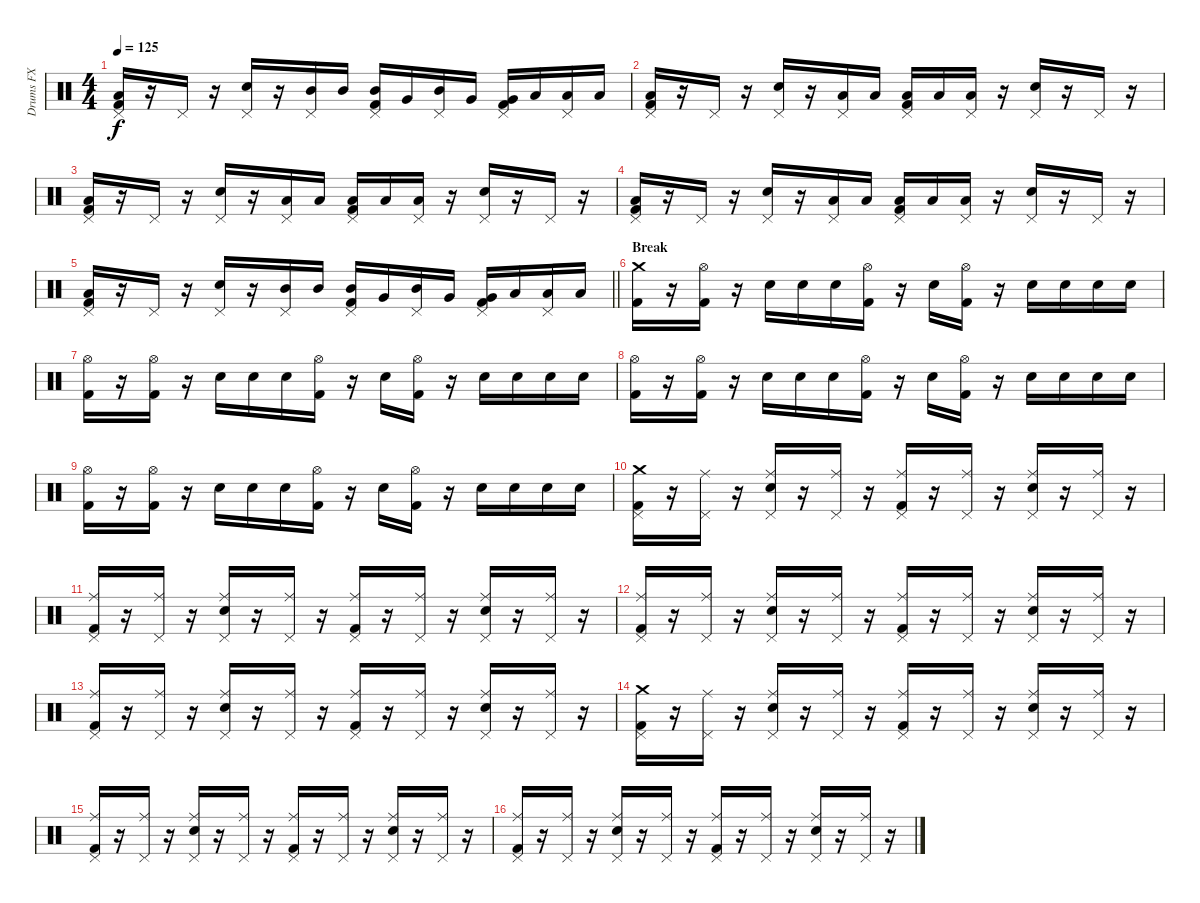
\track ("Drums FX" "Drums FX") {instrument percussion}
\staff {score}
\articulation defaults
\ts (4 4)
\tempo 125
\clef neutral
\ks c
("Low Floor Tom (hit)" "Pedal Hi-Hat (hit)" "Kick (hit) 2").16{dy f} r.16 "Pedal Hi-Hat (hit)".16 r.16 ("Snare (hit) 2" "Pedal Hi-Hat (hit)").16 r.16 ("Mid Tom (hit)" "Pedal Hi-Hat (hit)").16 "Mid Tom (hit)".16 ("Mid Tom (hit)" "Pedal Hi-Hat (hit)" "Kick (hit) 2").16 "Very Low Tom (hit)".16 ("Mid Tom (hit)" "Pedal Hi-Hat (hit)").16 "Very Low Tom (hit)".16 ("Very Low Tom (hit)" "Pedal Hi-Hat (hit)" "Kick (hit) 2").16 "Low Floor Tom (hit)".16 ("Low Floor Tom (hit)" "Pedal Hi-Hat (hit)").16 "Low Floor Tom (hit)".16 |
("Low Floor Tom (hit)" "Pedal Hi-Hat (hit)" "Kick (hit) 2").16 r.16 "Pedal Hi-Hat (hit)".16 r.16 ("Snare (hit) 2" "Pedal Hi-Hat (hit)").16 r.16 ("Low Floor Tom (hit)" "Pedal Hi-Hat (hit)").16 "Low Floor Tom (hit)".16 ("Low Floor Tom (hit)" "Pedal Hi-Hat (hit)" "Kick (hit) 2").16 "Low Floor Tom (hit)".16 ("Low Floor Tom (hit)" "Pedal Hi-Hat (hit)").16 r.16 ("Snare (hit) 2" "Pedal Hi-Hat (hit)").16 r.16 "Pedal Hi-Hat (hit)".16 r.16 |
("Low Floor Tom (hit)" "Pedal Hi-Hat (hit)" "Kick (hit) 2").16 r.16 "Pedal Hi-Hat (hit)".16 r.16 ("Snare (hit) 2" "Pedal Hi-Hat (hit)").16 r.16 ("Low Floor Tom (hit)" "Pedal Hi-Hat (hit)").16 "Low Floor Tom (hit)".16 ("Low Floor Tom (hit)" "Pedal Hi-Hat (hit)" "Kick (hit) 2").16 "Low Floor Tom (hit)".16 ("Low Floor Tom (hit)" "Pedal Hi-Hat (hit)").16 r.16 ("Snare (hit) 2" "Pedal Hi-Hat (hit)").16 r.16 "Pedal Hi-Hat (hit)".16 r.16 |
("Low Floor Tom (hit)" "Pedal Hi-Hat (hit)" "Kick (hit) 2").16 r.16 "Pedal Hi-Hat (hit)".16 r.16 ("Snare (hit) 2" "Pedal Hi-Hat (hit)").16 r.16 ("Low Floor Tom (hit)" "Pedal Hi-Hat (hit)").16 "Low Floor Tom (hit)".16 ("Low Floor Tom (hit)" "Pedal Hi-Hat (hit)" "Kick (hit) 2").16 "Low Floor Tom (hit)".16 ("Low Floor Tom (hit)" "Pedal Hi-Hat (hit)").16 r.16 ("Snare (hit) 2" "Pedal Hi-Hat (hit)").16 r.16 "Pedal Hi-Hat (hit)".16 r.16 |
\barLineRight lightlight
("Low Floor Tom (hit)" "Pedal Hi-Hat (hit)" "Kick (hit) 2").16 r.16 "Pedal Hi-Hat (hit)".16 r.16 ("Snare (hit) 2" "Pedal Hi-Hat (hit)").16 r.16 ("Mid Tom (hit)" "Pedal Hi-Hat (hit)").16 "Mid Tom (hit)".16 ("Mid Tom (hit)" "Pedal Hi-Hat (hit)" "Kick (hit) 2").16 "Very Low Tom (hit)".16 ("Mid Tom (hit)" "Pedal Hi-Hat (hit)").16 "Very Low Tom (hit)".16 ("Very Low Tom (hit)" "Pedal Hi-Hat (hit)" "Kick (hit) 2").16 "Low Floor Tom (hit)".16 ("Low Floor Tom (hit)" "Pedal Hi-Hat (hit)").16 "Low Floor Tom (hit)".16 |
\section ("" "Break")
("Crash medium (hit)" "Kick (hit) 2").16 r.16 ("Hi-Hat (open)" "Kick (hit) 2").16 r.16 "Snare (hit) 2".16 "Snare (hit) 2".16 "Snare (hit) 2".16 ("Hi-Hat (open)" "Kick (hit) 2").16 r.16 "Snare (hit) 2".16 ("Hi-Hat (open)" "Kick (hit) 2").16 r.16 "Snare (hit) 2".16 "Snare (hit) 2".16 "Snare (hit) 2".16 "Snare (hit) 2".16 |
("Hi-Hat (open)" "Kick (hit) 2").16 r.16 ("Hi-Hat (open)" "Kick (hit) 2").16 r.16 "Snare (hit) 2".16 "Snare (hit) 2".16 "Snare (hit) 2".16 ("Hi-Hat (open)" "Kick (hit) 2").16 r.16 "Snare (hit) 2".16 ("Hi-Hat (open)" "Kick (hit) 2").16 r.16 "Snare (hit) 2".16 "Snare (hit) 2".16 "Snare (hit) 2".16 "Snare (hit) 2".16 |
("Hi-Hat (open)" "Kick (hit) 2").16 r.16 ("Hi-Hat (open)" "Kick (hit) 2").16 r.16 "Snare (hit) 2".16 "Snare (hit) 2".16 "Snare (hit) 2".16 ("Hi-Hat (open)" "Kick (hit) 2").16 r.16 "Snare (hit) 2".16 ("Hi-Hat (open)" "Kick (hit) 2").16 r.16 "Snare (hit) 2".16 "Snare (hit) 2".16 "Snare (hit) 2".16 "Snare (hit) 2".16 |
("Hi-Hat (open)" "Kick (hit) 2").16 r.16 ("Hi-Hat (open)" "Kick (hit) 2").16 r.16 "Snare (hit) 2".16 "Snare (hit) 2".16 "Snare (hit) 2".16 ("Hi-Hat (open)" "Kick (hit) 2").16 r.16 "Snare (hit) 2".16 ("Hi-Hat (open)" "Kick (hit) 2").16 r.16 "Snare (hit) 2".16 "Snare (hit) 2".16 "Snare (hit) 2".16 "Snare (hit) 2".16 |
("Crash medium (hit)" "Pedal Hi-Hat (hit)" "Kick (hit) 2").16 r.16 ("Ride (middle)" "Pedal Hi-Hat (hit)").16 r.16 ("Ride (middle)" "Snare (hit) 2" "Pedal Hi-Hat (hit)").16 r.16 ("Ride (middle)" "Pedal Hi-Hat (hit)").16 r.16 ("Ride (middle)" "Pedal Hi-Hat (hit)" "Kick (hit) 2").16 r.16 ("Ride (middle)" "Pedal Hi-Hat (hit)").16 r.16 ("Ride (middle)" "Snare (hit) 2" "Pedal Hi-Hat (hit)").16 r.16 ("Ride (middle)" "Pedal Hi-Hat (hit)").16 r.16 |
("Ride (middle)" "Pedal Hi-Hat (hit)" "Kick (hit) 2").16 r.16 ("Ride (middle)" "Pedal Hi-Hat (hit)").16 r.16 ("Ride (middle)" "Snare (hit) 2" "Pedal Hi-Hat (hit)").16 r.16 ("Ride (middle)" "Pedal Hi-Hat (hit)").16 r.16 ("Ride (middle)" "Pedal Hi-Hat (hit)" "Kick (hit) 2").16 r.16 ("Ride (middle)" "Pedal Hi-Hat (hit)").16 r.16 ("Ride (middle)" "Snare (hit) 2" "Pedal Hi-Hat (hit)").16 r.16 ("Ride (middle)" "Pedal Hi-Hat (hit)").16 r.16 |
("Ride (middle)" "Pedal Hi-Hat (hit)" "Kick (hit) 2").16 r.16 ("Ride (middle)" "Pedal Hi-Hat (hit)").16 r.16 ("Ride (middle)" "Snare (hit) 2" "Pedal Hi-Hat (hit)").16 r.16 ("Ride (middle)" "Pedal Hi-Hat (hit)").16 r.16 ("Ride (middle)" "Pedal Hi-Hat (hit)" "Kick (hit) 2").16 r.16 ("Ride (middle)" "Pedal Hi-Hat (hit)").16 r.16 ("Ride (middle)" "Snare (hit) 2" "Pedal Hi-Hat (hit)").16 r.16 ("Ride (middle)" "Pedal Hi-Hat (hit)").16 r.16 |
("Ride (middle)" "Pedal Hi-Hat (hit)" "Kick (hit) 2").16 r.16 ("Ride (middle)" "Pedal Hi-Hat (hit)").16 r.16 ("Ride (middle)" "Snare (hit) 2" "Pedal Hi-Hat (hit)").16 r.16 ("Ride (middle)" "Pedal Hi-Hat (hit)").16 r.16 ("Ride (middle)" "Pedal Hi-Hat (hit)" "Kick (hit) 2").16 r.16 ("Ride (middle)" "Pedal Hi-Hat (hit)").16 r.16 ("Ride (middle)" "Snare (hit) 2" "Pedal Hi-Hat (hit)").16 r.16 ("Ride (middle)" "Pedal Hi-Hat (hit)").16 r.16 |
("Crash medium (hit)" "Pedal Hi-Hat (hit)" "Kick (hit) 2").16 r.16 ("Ride (middle)" "Pedal Hi-Hat (hit)").16 r.16 ("Ride (middle)" "Snare (hit) 2" "Pedal Hi-Hat (hit)").16 r.16 ("Ride (middle)" "Pedal Hi-Hat (hit)").16 r.16 ("Ride (middle)" "Pedal Hi-Hat (hit)" "Kick (hit) 2").16 r.16 ("Ride (middle)" "Pedal Hi-Hat (hit)").16 r.16 ("Ride (middle)" "Snare (hit) 2" "Pedal Hi-Hat (hit)").16 r.16 ("Ride (middle)" "Pedal Hi-Hat (hit)").16 r.16 |
("Ride (middle)" "Pedal Hi-Hat (hit)" "Kick (hit) 2").16 r.16 ("Ride (middle)" "Pedal Hi-Hat (hit)").16 r.16 ("Ride (middle)" "Snare (hit) 2" "Pedal Hi-Hat (hit)").16 r.16 ("Ride (middle)" "Pedal Hi-Hat (hit)").16 r.16 ("Ride (middle)" "Pedal Hi-Hat (hit)" "Kick (hit) 2").16 r.16 ("Ride (middle)" "Pedal Hi-Hat (hit)").16 r.16 ("Ride (middle)" "Snare (hit) 2" "Pedal Hi-Hat (hit)").16 r.16 ("Ride (middle)" "Pedal Hi-Hat (hit)").16 r.16 |
("Ride (middle)" "Pedal Hi-Hat (hit)" "Kick (hit) 2").16 r.16 ("Ride (middle)" "Pedal Hi-Hat (hit)").16 r.16 ("Ride (middle)" "Snare (hit) 2" "Pedal Hi-Hat (hit)").16 r.16 ("Ride (middle)" "Pedal Hi-Hat (hit)").16 r.16 ("Ride (middle)" "Pedal Hi-Hat (hit)" "Kick (hit) 2").16 r.16 ("Ride (middle)" "Pedal Hi-Hat (hit)").16 r.16 ("Ride (middle)" "Snare (hit) 2" "Pedal Hi-Hat (hit)").16 r.16 ("Ride (middle)" "Pedal Hi-Hat (hit)").16 r.16
